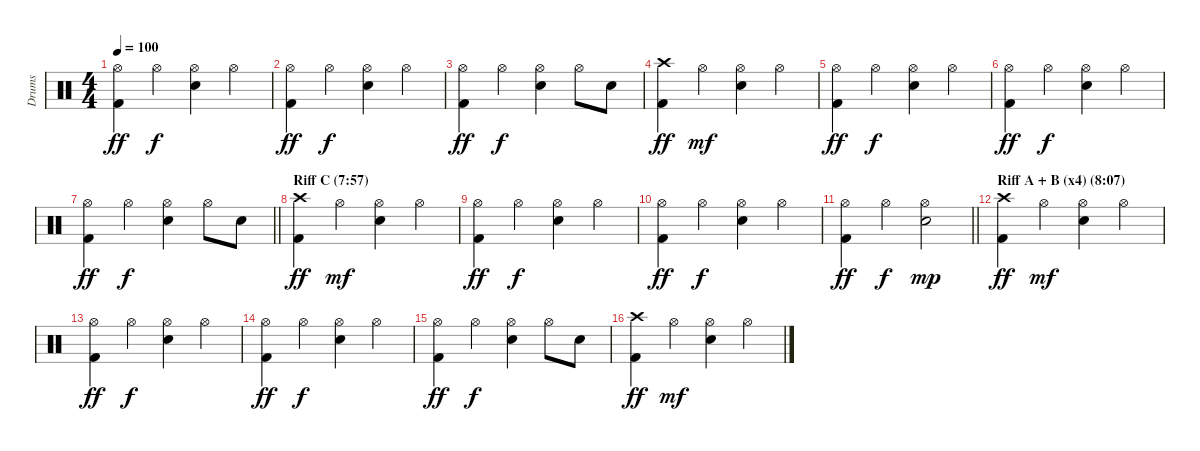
\track ("Drums" "Drums") {instrument percussion}
\staff {score}
\articulation defaults
\ts (4 4)
\tempo 100
\clef neutral
\ks c
("Hi-Hat (open)" "Kick (hit) 2").4{dy ff} "Hi-Hat (open)".4{dy f} ("Hi-Hat (open)" "Electric Snare (hit)").4 "Hi-Hat (open)".4 |
("Hi-Hat (open)" "Kick (hit) 2").4{dy ff} "Hi-Hat (open)".4{dy f} ("Hi-Hat (open)" "Electric Snare (hit)").4 "Hi-Hat (open)".4 |
("Hi-Hat (open)" "Kick (hit) 2").4{dy ff} "Hi-Hat (open)".4{dy f} ("Hi-Hat (open)" "Electric Snare (hit)").4 "Hi-Hat (open)".8 "Electric Snare (hit)".8 |
("Crash high (hit)" "Kick (hit) 2").4{dy ff} "Hi-Hat (open)".4{dy mf} ("Hi-Hat (open)" "Electric Snare (hit)").4 "Hi-Hat (open)".4 |
("Hi-Hat (open)" "Kick (hit) 2").4{dy ff} "Hi-Hat (open)".4{dy f} ("Hi-Hat (open)" "Electric Snare (hit)").4 "Hi-Hat (open)".4 |
("Hi-Hat (open)" "Kick (hit) 2").4{dy ff} "Hi-Hat (open)".4{dy f} ("Hi-Hat (open)" "Electric Snare (hit)").4 "Hi-Hat (open)".4 |
\barLineRight lightlight
("Hi-Hat (open)" "Kick (hit) 2").4{dy ff} "Hi-Hat (open)".4{dy f} ("Hi-Hat (open)" "Electric Snare (hit)").4 "Hi-Hat (open)".8 "Electric Snare (hit)".8 |
\section ("" "Riff C (7:57)")
("Crash high (hit)" "Kick (hit) 2").4{dy ff} "Hi-Hat (open)".4{dy mf} ("Hi-Hat (open)" "Electric Snare (hit)").4 "Hi-Hat (open)".4 |
("Hi-Hat (open)" "Kick (hit) 2").4{dy ff} "Hi-Hat (open)".4{dy f} ("Hi-Hat (open)" "Electric Snare (hit)").4 "Hi-Hat (open)".4 |
("Hi-Hat (open)" "Kick (hit) 2").4{dy ff} "Hi-Hat (open)".4{dy f} ("Hi-Hat (open)" "Electric Snare (hit)").4 "Hi-Hat (open)".4 |
\barLineRight lightlight
("Hi-Hat (open)" "Kick (hit) 2").4{dy ff} "Hi-Hat (open)".4{dy f} ("Hi-Hat (open)" "Electric Snare (hit)").2{dy mp} |
\section ("" "Riff A + B (x4) (8:07)")
("Crash high (hit)" "Kick (hit) 2").4{dy ff} "Hi-Hat (open)".4{dy mf} ("Hi-Hat (open)" "Electric Snare (hit)").4 "Hi-Hat (open)".4 |
("Hi-Hat (open)" "Kick (hit) 2").4{dy ff} "Hi-Hat (open)".4{dy f} ("Hi-Hat (open)" "Electric Snare (hit)").4 "Hi-Hat (open)".4 |
("Hi-Hat (open)" "Kick (hit) 2").4{dy ff} "Hi-Hat (open)".4{dy f} ("Hi-Hat (open)" "Electric Snare (hit)").4 "Hi-Hat (open)".4 |
("Hi-Hat (open)" "Kick (hit) 2").4{dy ff} "Hi-Hat (open)".4{dy f} ("Hi-Hat (open)" "Electric Snare (hit)").4 "Hi-Hat (open)".8 "Electric Snare (hit)".8 |
("Crash high (hit)" "Kick (hit) 2").4{dy ff} "Hi-Hat (open)".4{dy mf} ("Hi-Hat (open)" "Electric Snare (hit)").4 "Hi-Hat (open)".4
